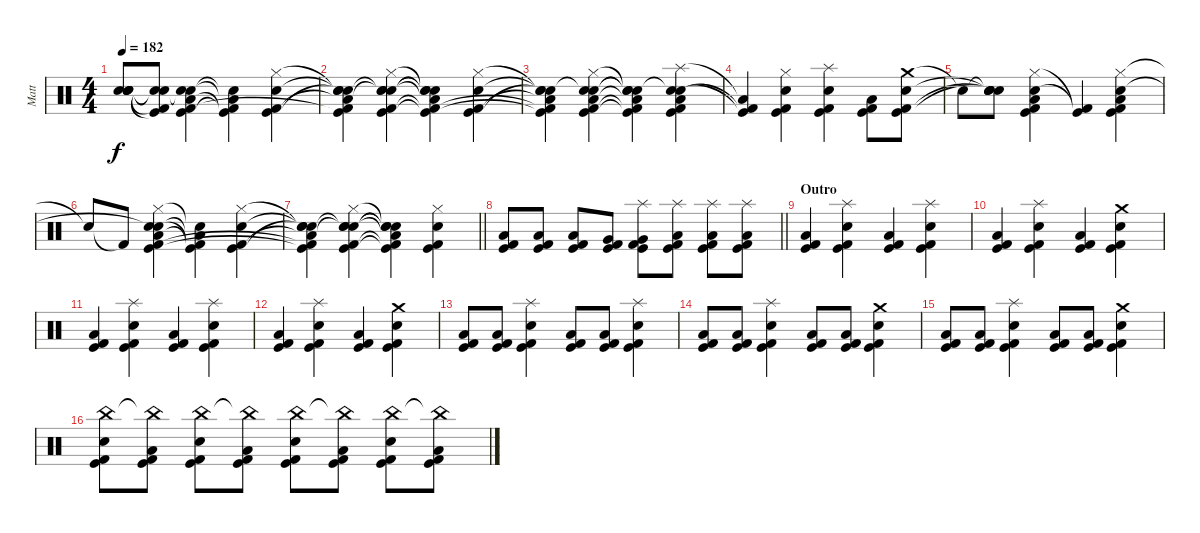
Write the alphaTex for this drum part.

\track ("Matt" "Matt") {instrument percussion}
\staff {score}
\articulation defaults
\ts (4 4)
\tempo 182
\clef neutral
\ks c
("Snare (hit)"{t} "Snare (hit)"{t} "Snare (hit)"{t} "Snare (hit)"{t}).8{dy f} ("Snare (hit)"{t} "Snare (hit)"{t} "Kick (hit)"{t} "Kick (hit) 2"{t}).8 ("Snare (hit)"{t} "Electric Snare (hit)" "Low Floor Tom (hit)" "Kick (hit)" "Kick (hit) 2").4 ("Snare (hit)"{t} "Low Floor Tom (hit)"{t} "Kick (hit)"{t} "Kick (hit) 2"{t}).4 ("Hi-Hat (closed)" "Electric Snare (hit)" "Kick (hit)" "Kick (hit) 2").4 |
("Snare (hit)"{t} "Snare (hit)"{t} "Snare (hit)"{t} "Low Floor Tom (hit)"{t} "Kick (hit)"{t} "Kick (hit) 2").4 ("Hi-Hat (closed)" "Snare (hit)"{t} "Electric Snare (hit)" "Snare (hit)"{t} "Kick (hit)" "Kick (hit) 2").4 ("Snare (hit)"{t} "Snare (hit)"{t} "Snare (hit)"{t} "Low Floor Tom (hit)"{t} "Kick (hit)"{t} "Kick (hit) 2"{t}).4 ("Hi-Hat (closed)" "Electric Snare (hit)" "Kick (hit)" "Kick (hit) 2").4 |
("Snare (hit)"{t} "Snare (hit)"{t} "Snare (hit)"{t} "Low Floor Tom (hit)"{t} "Kick (hit)"{t} "Kick (hit) 2"{t}).4 ("Hi-Hat (closed)" "Snare (hit)"{t} "Electric Snare (hit)" "Low Floor Tom (hit)" "Kick (hit)" "Kick (hit) 2").4 ("Snare (hit)"{t} "Snare (hit)"{t} "Snare (hit)"{t} "Low Floor Tom (hit)"{t} "Kick (hit)"{t} "Kick (hit) 2"{t}).4 ("Splash (hit)" "Snare (hit)"{t} "Electric Snare (hit)" "Low Floor Tom (hit)" "Kick (hit)" "Kick (hit) 2").4 |
("Low Floor Tom (hit)"{t} "Kick (hit)"{t} "Kick (hit) 2"{t}).4 ("Hi-Hat (closed)" "Electric Snare (hit)" "Kick (hit)" "Kick (hit) 2").4 ("Splash (hit)" "Electric Snare (hit)" "Kick (hit)" "Kick (hit) 2").4 ("Low Floor Tom (hit)" "Kick (hit)" "Kick (hit) 2").8 ("Crash medium (hit)" "Electric Snare (hit)" "Kick (hit)" "Kick (hit) 2").8 |
"Snare (hit)"{t}.8 ("Snare (hit)"{t} "Snare (hit)"{t} "Snare (hit)"{t} "Snare (hit)"{t}).8 ("Hi-Hat (closed)" "Electric Snare (hit)" "Low Floor Tom (hit)" "Kick (hit)" "Kick (hit) 2").4 ("Kick (hit)"{t} "Kick (hit) 2"{t}).4 ("Hi-Hat (closed)" "Electric Snare (hit)" "Low Floor Tom (hit)" "Kick (hit)" "Kick (hit) 2").4 |
"Snare (hit)"{t}.8 "Kick (hit) 2"{t}.8 ("Hi-Hat (closed)" "Snare (hit)"{t} "Electric Snare (hit)" "Low Floor Tom (hit)" "Kick (hit)" "Kick (hit) 2").4 ("Snare (hit)"{t} "Low Floor Tom (hit)"{t} "Kick (hit)"{t} "Kick (hit) 2"{t}).4 ("Hi-Hat (closed)" "Electric Snare (hit)" "Kick (hit)" "Kick (hit) 2").4 |
\barLineRight lightlight
("Snare (hit)"{t} "Snare (hit)"{t} "Snare (hit)"{t} "Low Floor Tom (hit)"{t} "Kick (hit)"{t} "Kick (hit) 2"{t}).4 ("Hi-Hat (closed)" "Snare (hit)"{t} "Electric Snare (hit)" "Snare (hit)"{t} "Kick (hit)" "Kick (hit) 2").4 ("Snare (hit)"{t} "Snare (hit)"{t} "Snare (hit)"{t} "Low Floor Tom (hit)"{t} "Kick (hit)"{t} "Kick (hit) 2"{t}).4 ("Hi-Hat (closed)" "Electric Snare (hit)" "Kick (hit)" "Kick (hit) 2").4 |
\barLineRight lightlight
("Low Floor Tom (hit)" "Kick (hit)" "Kick (hit) 2").8 ("Low Floor Tom (hit)" "Kick (hit)" "Kick (hit) 2").8 ("Low Floor Tom (hit)" "Kick (hit)" "Kick (hit) 2").8 ("Very Low Tom (hit)" "Kick (hit)" "Kick (hit) 2").8 ("Splash (hit)" "Very Low Tom (hit)" "Kick (hit)" "Kick (hit) 2").8 ("Splash (hit)" "Low Floor Tom (hit)" "Kick (hit)" "Kick (hit) 2").8 ("Splash (hit)" "Low Floor Tom (hit)" "Kick (hit)" "Kick (hit) 2").8 ("Splash (hit)" "Low Floor Tom (hit)" "Kick (hit)" "Kick (hit) 2").8 |
\section ("" "Outro")
("Low Floor Tom (hit)" "Kick (hit)" "Kick (hit) 2").4 ("Splash (hit)" "Electric Snare (hit)" "Kick (hit)" "Kick (hit) 2").4 ("Low Floor Tom (hit)" "Kick (hit)" "Kick (hit) 2").4 ("Splash (hit)" "Electric Snare (hit)" "Kick (hit)" "Kick (hit) 2").4 |
("Low Floor Tom (hit)" "Kick (hit)" "Kick (hit) 2").4 ("Splash (hit)" "Electric Snare (hit)" "Kick (hit)" "Kick (hit) 2").4 ("Low Floor Tom (hit)" "Kick (hit)" "Kick (hit) 2").4 ("Crash medium (hit)" "Electric Snare (hit)" "Kick (hit)" "Kick (hit) 2").4 |
("Low Floor Tom (hit)" "Kick (hit)" "Kick (hit) 2").4 ("Splash (hit)" "Electric Snare (hit)" "Kick (hit)" "Kick (hit) 2").4 ("Low Floor Tom (hit)" "Kick (hit)" "Kick (hit) 2").4 ("Splash (hit)" "Electric Snare (hit)" "Kick (hit)" "Kick (hit) 2").4 |
("Low Floor Tom (hit)" "Kick (hit)" "Kick (hit) 2").4 ("Splash (hit)" "Electric Snare (hit)" "Kick (hit)" "Kick (hit) 2").4 ("Low Floor Tom (hit)" "Kick (hit)" "Kick (hit) 2").4 ("Crash medium (hit)" "Electric Snare (hit)" "Kick (hit)" "Kick (hit) 2").4 |
("Low Floor Tom (hit)" "Kick (hit)" "Kick (hit) 2").8 ("Low Floor Tom (hit)" "Kick (hit)" "Kick (hit) 2").8 ("Splash (hit)" "Electric Snare (hit)" "Kick (hit)" "Kick (hit) 2").4 ("Low Floor Tom (hit)" "Kick (hit)" "Kick (hit) 2").8 ("Low Floor Tom (hit)" "Kick (hit)" "Kick (hit) 2").8 ("Splash (hit)" "Electric Snare (hit)" "Kick (hit)" "Kick (hit) 2").4 |
("Low Floor Tom (hit)" "Kick (hit)" "Kick (hit) 2").8 ("Low Floor Tom (hit)" "Kick (hit)" "Kick (hit) 2").8 ("Splash (hit)" "Electric Snare (hit)" "Kick (hit)" "Kick (hit) 2").4 ("Low Floor Tom (hit)" "Kick (hit)" "Kick (hit) 2").8 ("Low Floor Tom (hit)" "Kick (hit)" "Kick (hit) 2").8 ("Crash medium (hit)" "Electric Snare (hit)" "Kick (hit)" "Kick (hit) 2").4 |
("Low Floor Tom (hit)" "Kick (hit)" "Kick (hit) 2").8 ("Low Floor Tom (hit)" "Kick (hit)" "Kick (hit) 2").8 ("Splash (hit)" "Electric Snare (hit)" "Kick (hit)" "Kick (hit) 2").4 ("Low Floor Tom (hit)" "Kick (hit)" "Kick (hit) 2").8 ("Low Floor Tom (hit)" "Kick (hit)" "Kick (hit) 2").8 ("Crash medium (hit)" "Electric Snare (hit)" "Kick (hit)" "Kick (hit) 2").4 |
("China (hit)" "Electric Snare (hit)" "Kick (hit)" "Kick (hit) 2").8 ("China (hit)"{t} "Low Floor Tom (hit)" "Kick (hit)" "Kick (hit) 2").8 ("China (hit)" "Electric Snare (hit)" "Kick (hit)" "Kick (hit) 2").8 ("China (hit)"{t} "Low Floor Tom (hit)" "Kick (hit)" "Kick (hit) 2").8 ("China (hit)" "Electric Snare (hit)" "Kick (hit)" "Kick (hit) 2").8 ("China (hit)"{t} "Low Floor Tom (hit)" "Kick (hit)" "Kick (hit) 2").8 ("China (hit)" "Electric Snare (hit)" "Kick (hit)" "Kick (hit) 2").8 ("China (hit)"{t} "Low Floor Tom (hit)" "Kick (hit)" "Kick (hit) 2").8
